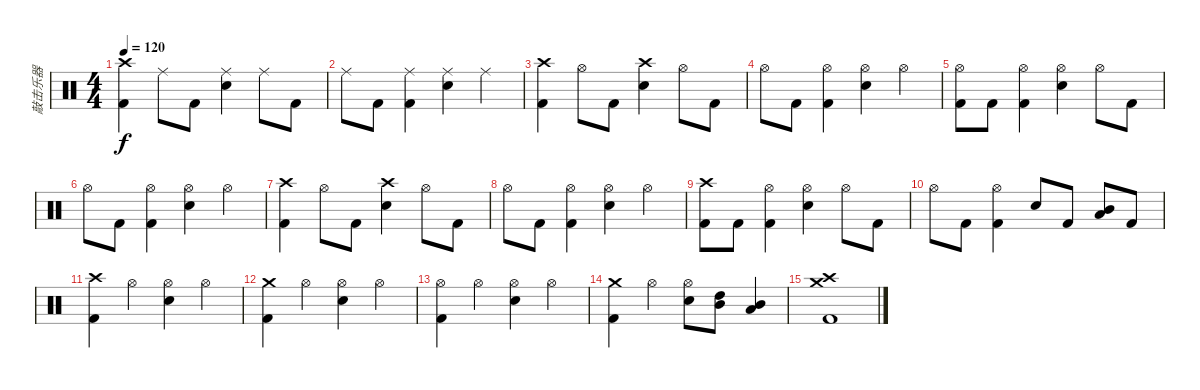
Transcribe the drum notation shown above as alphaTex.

\track ("敲击乐器" "敲击乐器") {instrument percussion}
\staff {score}
\articulation defaults
\ts (4 4)
\tempo 120
\clef neutral
\ks c
("Crash high (hit)" "Kick (hit) 2").4{dy f} "Ride (middle)".8 "Kick (hit) 2".8 ("Ride (middle)" "Snare (hit) 2").4 "Ride (middle)".8 "Kick (hit) 2".8 |
"Ride (middle)".8 "Kick (hit) 2".8 ("Ride (middle)" "Kick (hit) 2").4 ("Snare (hit) 2" "Ride (middle)").4 "Ride (middle)".4 |
("Crash high (hit)" "Kick (hit) 2").4 "Hi-Hat (open)".8 "Kick (hit) 2".8 ("Crash high (hit)" "Snare (hit) 2").4 "Hi-Hat (open)".8 "Kick (hit) 2".8 |
"Hi-Hat (open)".8 "Kick (hit) 2".8 ("Hi-Hat (open)" "Kick (hit) 2").4 ("Snare (hit) 2" "Hi-Hat (open)").4 "Hi-Hat (open)".4 |
("Hi-Hat (open)" "Kick (hit) 2").8 "Kick (hit) 2".8 ("Hi-Hat (open)" "Kick (hit) 2").4 ("Hi-Hat (open)" "Snare (hit) 2").4 "Hi-Hat (open)".8 "Kick (hit) 2".8 |
"Hi-Hat (open)".8 "Kick (hit) 2".8 ("Hi-Hat (open)" "Kick (hit) 2").4 ("Snare (hit) 2" "Hi-Hat (open)").4 "Hi-Hat (open)".4 |
("Crash high (hit)" "Kick (hit) 2").4 "Hi-Hat (open)".8 "Kick (hit) 2".8 ("Crash high (hit)" "Snare (hit) 2").4 "Hi-Hat (open)".8 "Kick (hit) 2".8 |
"Hi-Hat (open)".8 "Kick (hit) 2".8 ("Hi-Hat (open)" "Kick (hit) 2").4 ("Snare (hit) 2" "Hi-Hat (open)").4 "Hi-Hat (open)".4 |
("Crash high (hit)" "Kick (hit) 2").8 "Kick (hit) 2".8 ("Hi-Hat (open)" "Kick (hit) 2").4 ("Hi-Hat (open)" "Snare (hit) 2").4 "Hi-Hat (open)".8 "Kick (hit) 2".8 |
"Hi-Hat (open)".8 "Kick (hit) 2".8 ("Hi-Hat (open)" "Kick (hit) 2").4 "Snare (hit) 2".8 "Kick (hit) 2".8 ("Mid Tom (hit)" "Low Tom (hit)").8 "Kick (hit) 2".8 |
("Crash high (hit)" "Kick (hit) 2").4 "Hi-Hat (open)".4 ("Hi-Hat (open)" "Snare (hit) 2").4 "Hi-Hat (open)".4 |
("Crash medium (hit)" "Kick (hit) 2").4 "Hi-Hat (open)".4 ("Hi-Hat (open)" "Snare (hit) 2").4 "Hi-Hat (open)".4 |
("Hi-Hat (open)" "Kick (hit) 2").4 "Hi-Hat (open)".4 ("Hi-Hat (open)" "Snare (hit) 2").4 "Hi-Hat (open)".4 |
("Crash medium (hit)" "Kick (hit) 2").4 "Hi-Hat (open)".4 ("Hi-Hat (open)" "Snare (hit) 2").8 ("Mid Tom (hit)" "High Tom (hit)").8 ("Low Tom (hit)" "Mid Tom (hit)").4 |
("Kick (hit) 2" "Crash high (hit)" "Crash medium (hit)").1
